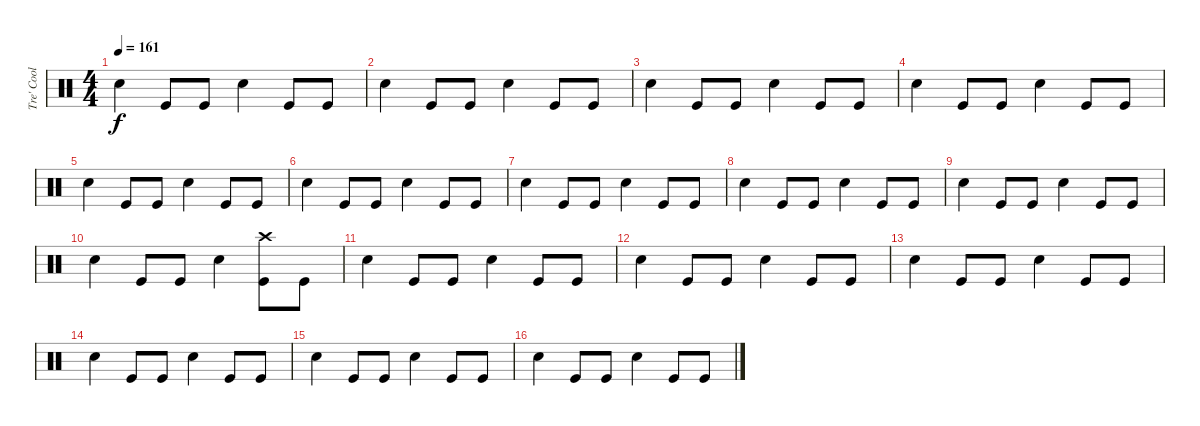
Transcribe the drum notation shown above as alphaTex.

\track ("Tre' Cool" "Tre' Cool") {instrument percussion}
\staff {score}
\articulation defaults
\ts (4 4)
\tempo 161
\clef neutral
\ks c "Snare (hit) 2".4{dy f} "Kick (hit)".8 "Kick (hit)".8 "Snare (hit) 2".4 "Kick (hit)".8 "Kick (hit)".8
|
"Snare (hit) 2".4 "Kick (hit)".8 "Kick (hit)".8 "Snare (hit) 2".4 "Kick (hit)".8 "Kick (hit)".8 |
"Snare (hit) 2".4 "Kick (hit)".8 "Kick (hit)".8 "Snare (hit) 2".4 "Kick (hit)".8 "Kick (hit)".8 |
"Snare (hit) 2".4 "Kick (hit)".8 "Kick (hit)".8 "Snare (hit) 2".4 "Kick (hit)".8 "Kick (hit)".8 |
"Snare (hit) 2".4 "Kick (hit)".8 "Kick (hit)".8 "Snare (hit) 2".4 "Kick (hit)".8 "Kick (hit)".8 |
"Snare (hit) 2".4 "Kick (hit)".8 "Kick (hit)".8 "Snare (hit) 2".4 "Kick (hit)".8 "Kick (hit)".8 |
"Snare (hit) 2".4 "Kick (hit)".8 "Kick (hit)".8 "Snare (hit) 2".4 "Kick (hit)".8 "Kick (hit)".8 |
"Snare (hit) 2".4 "Kick (hit)".8 "Kick (hit)".8 "Snare (hit) 2".4 "Kick (hit)".8 "Kick (hit)".8 |
"Snare (hit) 2".4 "Kick (hit)".8 "Kick (hit)".8 "Snare (hit) 2".4 "Kick (hit)".8 "Kick (hit)".8 |
"Snare (hit) 2".4 "Kick (hit)".8 "Kick (hit)".8 "Snare (hit) 2".4 ("Kick (hit)" "Crash high (hit)").8 "Kick (hit)".8 |
"Snare (hit) 2".4 "Kick (hit)".8 "Kick (hit)".8 "Snare (hit) 2".4 "Kick (hit)".8 "Kick (hit)".8 |
"Snare (hit) 2".4 "Kick (hit)".8 "Kick (hit)".8 "Snare (hit) 2".4 "Kick (hit)".8 "Kick (hit)".8 |
"Snare (hit) 2".4 "Kick (hit)".8 "Kick (hit)".8 "Snare (hit) 2".4 "Kick (hit)".8 "Kick (hit)".8 |
"Snare (hit) 2".4 "Kick (hit)".8 "Kick (hit)".8 "Snare (hit) 2".4 "Kick (hit)".8 "Kick (hit)".8 |
"Snare (hit) 2".4 "Kick (hit)".8 "Kick (hit)".8 "Snare (hit) 2".4 "Kick (hit)".8 "Kick (hit)".8 |
"Snare (hit) 2".4 "Kick (hit)".8 "Kick (hit)".8 "Snare (hit) 2".4 "Kick (hit)".8 "Kick (hit)".8
